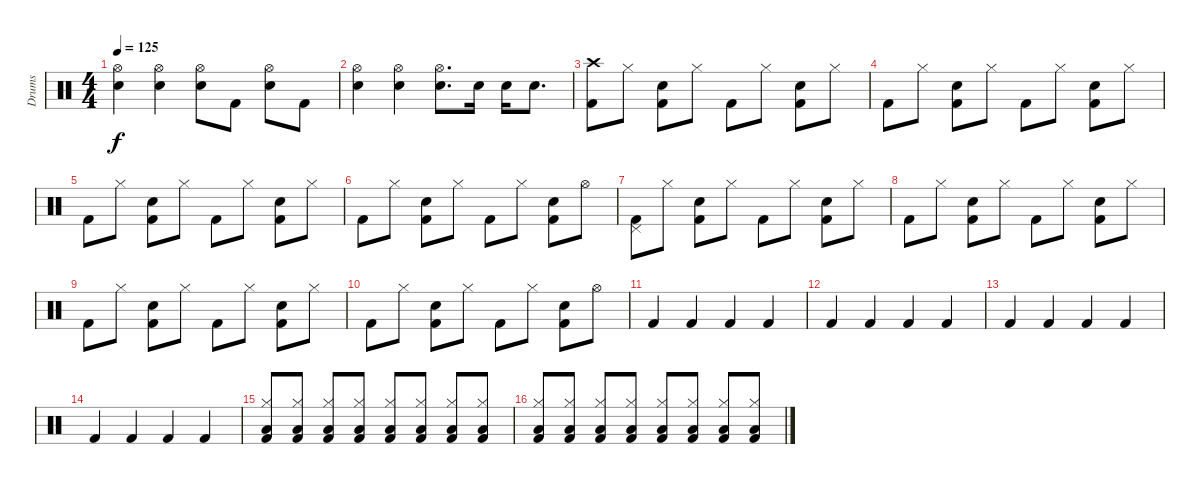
\track ("Drums" "Drums") {instrument percussion}
\staff {score}
\articulation defaults
\ts (4 4)
\tempo 125
\clef neutral
\ks c
("Hi-Hat (open)" "Electric Snare (hit)").4{dy f} ("Hi-Hat (open)" "Electric Snare (hit)").4 ("Hi-Hat (open)" "Electric Snare (hit)").8 "Kick (hit) 2".8 ("Hi-Hat (open)" "Electric Snare (hit)").8 "Kick (hit) 2".8 |
("Hi-Hat (open)" "Electric Snare (hit)").4 ("Hi-Hat (open)" "Electric Snare (hit)").4 ("Hi-Hat (open)" "Electric Snare (hit)").8{d} "Electric Snare (hit)".16 "Electric Snare (hit)".16 "Electric Snare (hit)".8{d} |
("Crash high (hit)" "Kick (hit) 2").8 "Hi-Hat (closed)".8 ("Electric Snare (hit)" "Kick (hit) 2").8 "Hi-Hat (closed)".8 "Kick (hit) 2".8 "Hi-Hat (closed)".8 ("Electric Snare (hit)" "Kick (hit) 2").8 "Hi-Hat (closed)".8 |
"Kick (hit) 2".8 "Hi-Hat (closed)".8 ("Electric Snare (hit)" "Kick (hit) 2").8 "Hi-Hat (closed)".8 "Kick (hit) 2".8 "Hi-Hat (closed)".8 ("Electric Snare (hit)" "Kick (hit) 2").8 "Hi-Hat (closed)".8 |
"Kick (hit) 2".8 "Hi-Hat (closed)".8 ("Electric Snare (hit)" "Kick (hit) 2").8 "Hi-Hat (closed)".8 "Kick (hit) 2".8 "Hi-Hat (closed)".8 ("Electric Snare (hit)" "Kick (hit) 2").8 "Hi-Hat (closed)".8 |
"Kick (hit) 2".8 "Hi-Hat (closed)".8 ("Electric Snare (hit)" "Kick (hit) 2").8 "Hi-Hat (closed)".8 "Kick (hit) 2".8 "Hi-Hat (closed)".8 ("Electric Snare (hit)" "Kick (hit) 2").8 "Hi-Hat (open)".8 |
("Pedal Hi-Hat (hit)" "Kick (hit) 2").8 "Hi-Hat (closed)".8 ("Electric Snare (hit)" "Kick (hit) 2").8 "Hi-Hat (closed)".8 "Kick (hit) 2".8 "Hi-Hat (closed)".8 ("Electric Snare (hit)" "Kick (hit) 2").8 "Hi-Hat (closed)".8 |
"Kick (hit) 2".8 "Hi-Hat (closed)".8 ("Electric Snare (hit)" "Kick (hit) 2").8 "Hi-Hat (closed)".8 "Kick (hit) 2".8 "Hi-Hat (closed)".8 ("Electric Snare (hit)" "Kick (hit) 2").8 "Hi-Hat (closed)".8 |
"Kick (hit) 2".8 "Hi-Hat (closed)".8 ("Electric Snare (hit)" "Kick (hit) 2").8 "Hi-Hat (closed)".8 "Kick (hit) 2".8 "Hi-Hat (closed)".8 ("Electric Snare (hit)" "Kick (hit) 2").8 "Hi-Hat (closed)".8 |
"Kick (hit) 2".8 "Hi-Hat (closed)".8 ("Electric Snare (hit)" "Kick (hit) 2").8 "Hi-Hat (closed)".8 "Kick (hit) 2".8 "Hi-Hat (closed)".8 ("Electric Snare (hit)" "Kick (hit) 2").8 "Hi-Hat (open)".8 |
"Kick (hit) 2".4 "Kick (hit) 2".4 "Kick (hit) 2".4 "Kick (hit) 2".4 |
"Kick (hit) 2".4 "Kick (hit) 2".4 "Kick (hit) 2".4 "Kick (hit) 2".4 |
"Kick (hit) 2".4 "Kick (hit) 2".4 "Kick (hit) 2".4 "Kick (hit) 2".4 |
"Kick (hit) 2".4 "Kick (hit) 2".4 "Kick (hit) 2".4 "Kick (hit) 2".4 |
("Hi-Hat (closed)" "Low Floor Tom (hit)" "Kick (hit) 2").8 ("Hi-Hat (closed)" "Low Floor Tom (hit)" "Kick (hit) 2").8 ("Hi-Hat (closed)" "Low Floor Tom (hit)" "Kick (hit) 2").8 ("Hi-Hat (closed)" "Low Floor Tom (hit)" "Kick (hit) 2").8 ("Hi-Hat (closed)" "Low Floor Tom (hit)" "Kick (hit) 2").8 ("Hi-Hat (closed)" "Low Floor Tom (hit)" "Kick (hit) 2").8 ("Hi-Hat (closed)" "Low Floor Tom (hit)" "Kick (hit) 2").8 ("Hi-Hat (closed)" "Low Floor Tom (hit)" "Kick (hit) 2").8 |
("Hi-Hat (closed)" "Low Floor Tom (hit)" "Kick (hit) 2").8 ("Hi-Hat (closed)" "Low Floor Tom (hit)" "Kick (hit) 2").8 ("Hi-Hat (closed)" "Low Floor Tom (hit)" "Kick (hit) 2").8 ("Hi-Hat (closed)" "Low Floor Tom (hit)" "Kick (hit) 2").8 ("Hi-Hat (closed)" "Low Floor Tom (hit)" "Kick (hit) 2").8 ("Hi-Hat (closed)" "Low Floor Tom (hit)" "Kick (hit) 2").8 ("Hi-Hat (closed)" "Low Floor Tom (hit)" "Kick (hit) 2").8 ("Hi-Hat (closed)" "Low Floor Tom (hit)" "Kick (hit) 2").8
